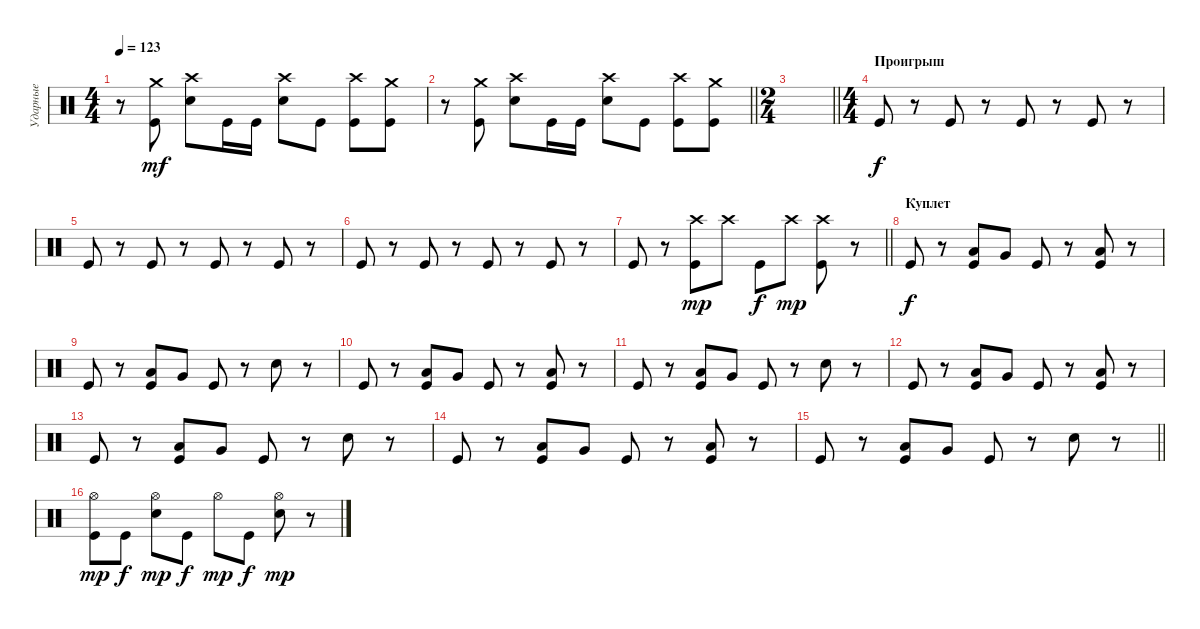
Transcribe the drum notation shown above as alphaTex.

\track ("Ударные" "Ударные") {instrument percussion}
\staff {score}
\articulation defaults
\ts (4 4)
\tempo 123
\clef neutral
\ks c
r.8{dy mf} ("Crash medium (hit)" "Kick (hit)").8 ("Crash high (hit)" "Electric Snare (hit)").8 "Kick (hit)".16 "Kick (hit)".16 ("Crash high (hit)" "Electric Snare (hit)").8 "Kick (hit)".8 ("Crash high (hit)" "Kick (hit)").8 ("Crash medium (hit)" "Kick (hit)").8 |
\barLineRight lightlight
r.8 ("Crash medium (hit)" "Kick (hit)").8 ("Crash high (hit)" "Electric Snare (hit)").8 "Kick (hit)".16 "Kick (hit)".16 ("Crash high (hit)" "Electric Snare (hit)").8 "Kick (hit)".8 ("Crash high (hit)" "Kick (hit)").8 ("Crash medium (hit)" "Kick (hit)").8 |
\ts (2 4)
\barLineRight lightlight
|
\ts (4 4)
\section ("" "Проигрыш")
"Kick (hit)".8{dy f} r.8 "Kick (hit)".8 r.8 "Kick (hit)".8 r.8 "Kick (hit)".8 r.8 |
"Kick (hit)".8 r.8 "Kick (hit)".8 r.8 "Kick (hit)".8 r.8 "Kick (hit)".8 r.8 |
"Kick (hit)".8 r.8 "Kick (hit)".8 r.8 "Kick (hit)".8 r.8 "Kick (hit)".8 r.8 |
\barLineRight lightlight "Kick (hit)".8
r.8 ("Crash high (hit)" "Kick (hit)").8{dy mp} "Crash high (hit)".8 "Kick (hit)".8{dy f} "Crash high (hit)".8{dy mp} ("Crash high (hit)" "Kick (hit)").8 r.8 |
\section ("" "Куплет")
"Kick (hit)".8{dy f} r.8 ("Low Tom (hit)" "Kick (hit)").8 "Very Low Tom (hit)".8 "Kick (hit)".8 r.8 ("Low Tom (hit)" "Kick (hit)").8 r.8 |
"Kick (hit)".8 r.8 ("Low Tom (hit)" "Kick (hit)").8 "Very Low Tom (hit)".8 "Kick (hit)".8 r.8 "Electric Snare (hit)".8 r.8 |
"Kick (hit)".8 r.8 ("Low Tom (hit)" "Kick (hit)").8 "Very Low Tom (hit)".8 "Kick (hit)".8 r.8 ("Low Tom (hit)" "Kick (hit)").8 r.8 |
"Kick (hit)".8 r.8 ("Low Tom (hit)" "Kick (hit)").8 "Very Low Tom (hit)".8 "Kick (hit)".8 r.8 "Electric Snare (hit)".8 r.8 |
"Kick (hit)".8 r.8 ("Low Tom (hit)" "Kick (hit)").8 "Very Low Tom (hit)".8 "Kick (hit)".8 r.8 ("Low Tom (hit)" "Kick (hit)").8 r.8 |
"Kick (hit)".8 r.8 ("Low Tom (hit)" "Kick (hit)").8 "Very Low Tom (hit)".8 "Kick (hit)".8 r.8 "Electric Snare (hit)".8 r.8 |
"Kick (hit)".8 r.8 ("Low Tom (hit)" "Kick (hit)").8 "Very Low Tom (hit)".8 "Kick (hit)".8 r.8 ("Low Tom (hit)" "Kick (hit)").8 r.8 |
\barLineRight lightlight "Kick (hit)".8
r.8 ("Low Tom (hit)" "Kick (hit)").8 "Very Low Tom (hit)".8 "Kick (hit)".8 r.8 "Electric Snare (hit)".8 r.8 |
\section ("" " ")
("Hi-Hat (open)" "Kick (hit)").8{dy mp} "Kick (hit)".8{dy f} ("Hi-Hat (open)" "Electric Snare (hit)").8{dy mp} "Kick (hit)".8{dy f} "Hi-Hat (open)".8{dy mp} "Kick (hit)".8{dy f} ("Hi-Hat (open)" "Electric Snare (hit)").8{dy mp} r.8
